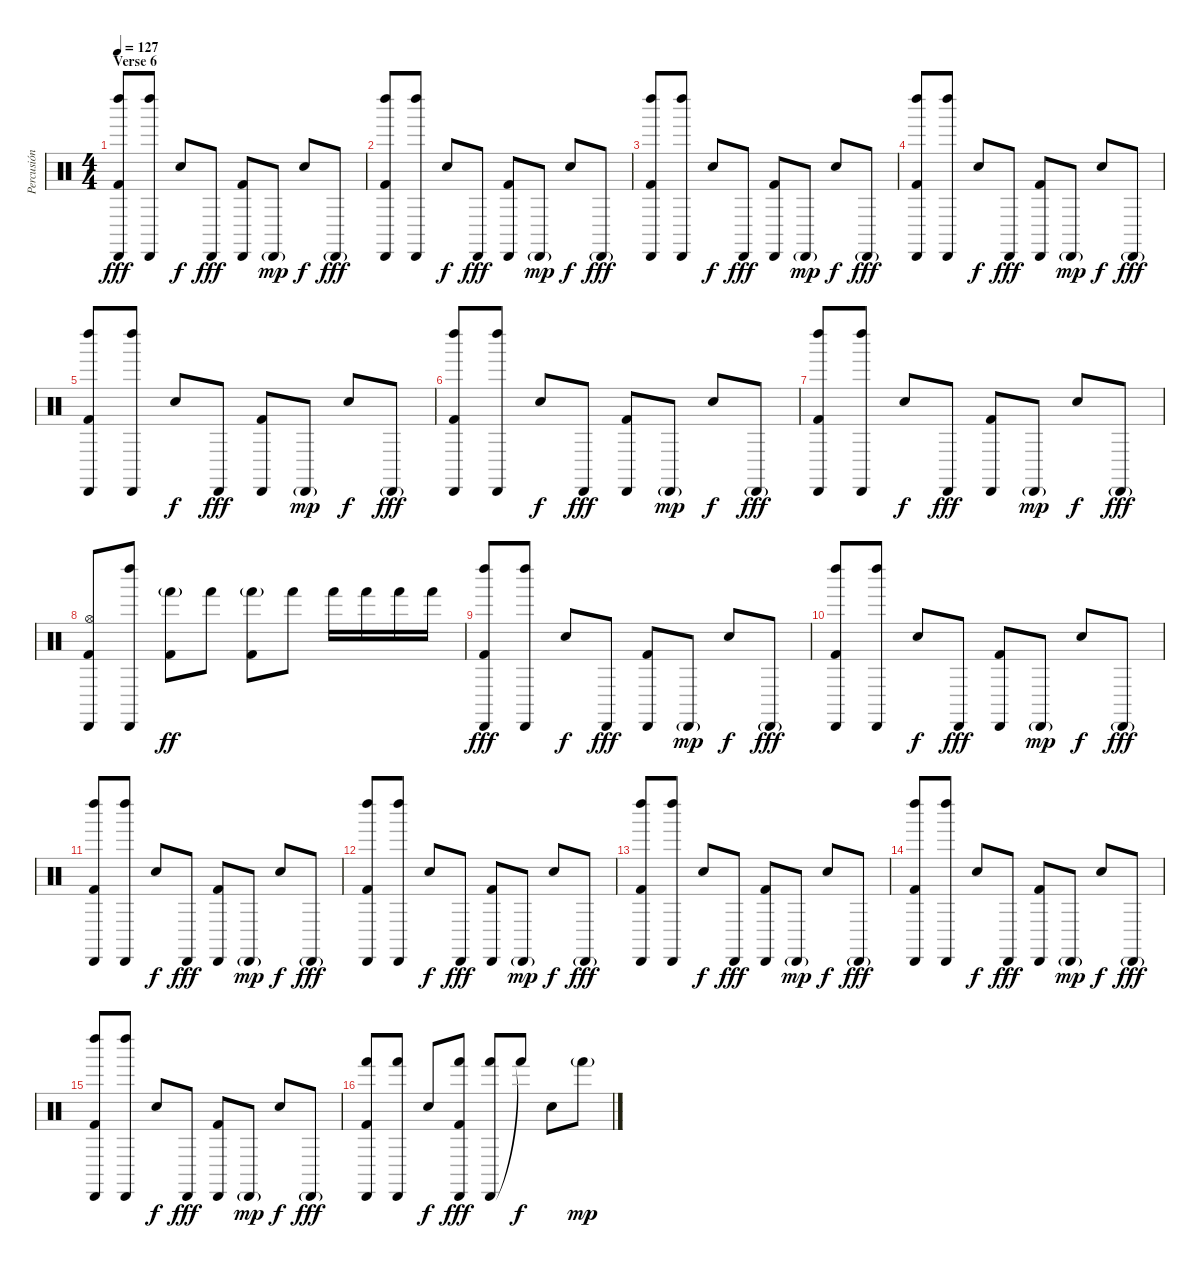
\track ("Percusión" "Percusión") {instrument percussion}
\staff {score}
\articulation defaults
\ts (4 4)
\section ("" "Verse 6")
\tempo 127
\clef neutral
\ks c
("Left Maraca (hit)" "Cabasa (hit)" "Kick (hit) 2").8{dy fff} ("Left Maraca (hit)" "Cabasa (hit)").8 "Electric Snare (hit)".8{dy f} "Cabasa (hit)".8{dy fff} ("Cabasa (hit)" "Kick (hit) 2").8 "Cabasa (hit)"{g}.8{dy mp} "Electric Snare (hit)".8{dy f} "Cabasa (hit)"{g}.8{dy fff} |
("Left Maraca (hit)" "Cabasa (hit)" "Kick (hit) 2").8 ("Left Maraca (hit)" "Cabasa (hit)").8 "Electric Snare (hit)".8{dy f} "Cabasa (hit)".8{dy fff} ("Cabasa (hit)" "Kick (hit) 2").8 "Cabasa (hit)"{g}.8{dy mp} "Electric Snare (hit)".8{dy f} "Cabasa (hit)"{g}.8{dy fff} |
("Left Maraca (hit)" "Cabasa (hit)" "Kick (hit) 2").8 ("Left Maraca (hit)" "Cabasa (hit)").8 "Electric Snare (hit)".8{dy f} "Cabasa (hit)".8{dy fff} ("Cabasa (hit)" "Kick (hit) 2").8 "Cabasa (hit)"{g}.8{dy mp} "Electric Snare (hit)".8{dy f} "Cabasa (hit)"{g}.8{dy fff} |
("Left Maraca (hit)" "Cabasa (hit)" "Kick (hit) 2").8 ("Left Maraca (hit)" "Cabasa (hit)").8 "Electric Snare (hit)".8{dy f} "Cabasa (hit)".8{dy fff} ("Cabasa (hit)" "Kick (hit) 2").8 "Cabasa (hit)"{g}.8{dy mp} "Electric Snare (hit)".8{dy f} "Cabasa (hit)"{g}.8{dy fff} |
("Left Maraca (hit)" "Cabasa (hit)" "Kick (hit) 2").8 ("Left Maraca (hit)" "Cabasa (hit)").8 "Electric Snare (hit)".8{dy f} "Cabasa (hit)".8{dy fff} ("Cabasa (hit)" "Kick (hit) 2").8 "Cabasa (hit)"{g}.8{dy mp} "Electric Snare (hit)".8{dy f} "Cabasa (hit)"{g}.8{dy fff} |
("Left Maraca (hit)" "Cabasa (hit)" "Kick (hit) 2").8 ("Left Maraca (hit)" "Cabasa (hit)").8 "Electric Snare (hit)".8{dy f} "Cabasa (hit)".8{dy fff} ("Cabasa (hit)" "Kick (hit) 2").8 "Cabasa (hit)"{g}.8{dy mp} "Electric Snare (hit)".8{dy f} "Cabasa (hit)"{g}.8{dy fff} |
("Left Maraca (hit)" "Cabasa (hit)" "Kick (hit) 2").8 ("Left Maraca (hit)" "Cabasa (hit)").8 "Electric Snare (hit)".8{dy f} "Cabasa (hit)".8{dy fff} ("Cabasa (hit)" "Kick (hit) 2").8 "Cabasa (hit)"{g}.8{dy mp} "Electric Snare (hit)".8{dy f} "Cabasa (hit)"{g}.8{dy fff} |
("Hi-Hat (open)" "Cabasa (hit)" "Kick (hit) 2").8 ("Left Maraca (hit)" "Cabasa (hit)").8 ("Hand (hit)"{g} "Kick (hit) 2").8{dy ff} "Hand (hit)".8 ("Hand (hit)"{g} "Kick (hit) 2").8 "Hand (hit)".8 "Hand (hit)".16 "Hand (hit)".16 "Hand (hit)".16 "Hand (hit)".16 |
("Left Maraca (hit)" "Cabasa (hit)" "Kick (hit) 2").8{dy fff} ("Left Maraca (hit)" "Cabasa (hit)").8 "Electric Snare (hit)".8{dy f} "Cabasa (hit)".8{dy fff} ("Cabasa (hit)" "Kick (hit) 2").8 "Cabasa (hit)"{g}.8{dy mp} "Electric Snare (hit)".8{dy f} "Cabasa (hit)"{g}.8{dy fff} |
("Left Maraca (hit)" "Cabasa (hit)" "Kick (hit) 2").8 ("Left Maraca (hit)" "Cabasa (hit)").8 "Electric Snare (hit)".8{dy f} "Cabasa (hit)".8{dy fff} ("Cabasa (hit)" "Kick (hit) 2").8 "Cabasa (hit)"{g}.8{dy mp} "Electric Snare (hit)".8{dy f} "Cabasa (hit)"{g}.8{dy fff} |
("Left Maraca (hit)" "Cabasa (hit)" "Kick (hit) 2").8 ("Left Maraca (hit)" "Cabasa (hit)").8 "Electric Snare (hit)".8{dy f} "Cabasa (hit)".8{dy fff} ("Cabasa (hit)" "Kick (hit) 2").8 "Cabasa (hit)"{g}.8{dy mp} "Electric Snare (hit)".8{dy f} "Cabasa (hit)"{g}.8{dy fff} |
("Left Maraca (hit)" "Cabasa (hit)" "Kick (hit) 2").8 ("Left Maraca (hit)" "Cabasa (hit)").8 "Electric Snare (hit)".8{dy f} "Cabasa (hit)".8{dy fff} ("Cabasa (hit)" "Kick (hit) 2").8 "Cabasa (hit)"{g}.8{dy mp} "Electric Snare (hit)".8{dy f} "Cabasa (hit)"{g}.8{dy fff} |
("Left Maraca (hit)" "Cabasa (hit)" "Kick (hit) 2").8 ("Left Maraca (hit)" "Cabasa (hit)").8 "Electric Snare (hit)".8{dy f} "Cabasa (hit)".8{dy fff} ("Cabasa (hit)" "Kick (hit) 2").8 "Cabasa (hit)"{g}.8{dy mp} "Electric Snare (hit)".8{dy f} "Cabasa (hit)"{g}.8{dy fff} |
("Left Maraca (hit)" "Cabasa (hit)" "Kick (hit) 2").8 ("Left Maraca (hit)" "Cabasa (hit)").8 "Electric Snare (hit)".8{dy f} "Cabasa (hit)".8{dy fff} ("Cabasa (hit)" "Kick (hit) 2").8 "Cabasa (hit)"{g}.8{dy mp} "Electric Snare (hit)".8{dy f} "Cabasa (hit)"{g}.8{dy fff} |
("Left Maraca (hit)" "Cabasa (hit)" "Kick (hit) 2").8 ("Left Maraca (hit)" "Cabasa (hit)").8 "Electric Snare (hit)".8{dy f} "Cabasa (hit)".8{dy fff} ("Cabasa (hit)" "Kick (hit) 2").8 "Cabasa (hit)"{g}.8{dy mp} "Electric Snare (hit)".8{dy f} "Cabasa (hit)"{g}.8{dy fff} |
("Cabasa (hit)" "Hand (hit)" "Kick (hit) 2").8 ("Cabasa (hit)" "Hand (hit)").8 "Electric Snare (hit)".8{dy f} ("Cabasa (hit)" "Hand (hit)" "Kick (hit) 2").8{dy fff} ("Cabasa (hit)" "Hand (hit)").8 "Hand (hit)"{t}.8{dy f} "Electric Snare (hit)".8 "Hand (hit)"{g}.8{dy mp}
